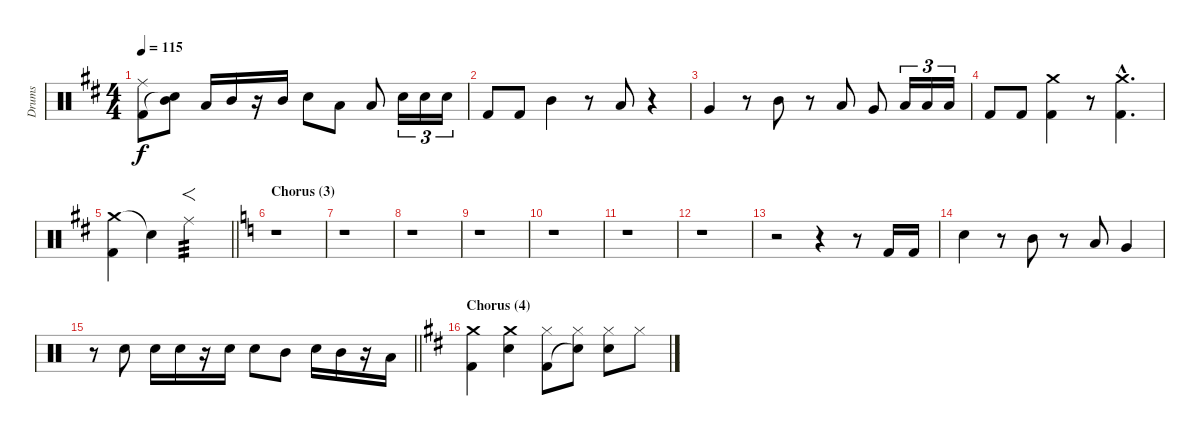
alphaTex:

\track ("Drums" "Drums") {instrument percussion}
\staff {score}
\articulation defaults
\ts (4 4)
\tempo 115
\clef neutral
\ks d
("Ride (middle)" "Kick (hit) 2").8{dy f} ("Mid Tom (hit)" "Snare (hit)"{t}).8 "Low Tom (hit)".16 "Mid Tom (hit)".16 r.16 "Mid Tom (hit)".16 "Electric Snare (hit)".8 "Low Tom (hit)".8 "Low Tom (hit)".8 "Electric Snare (hit)".16{tu (3 2)} "Electric Snare (hit)".16{tu (3 2)} "Electric Snare (hit)".16{tu (3 2)} |
"Kick (hit) 2".8 "Kick (hit) 2".8 "Mid Tom (hit)".4 r.8 "Low Tom (hit)".8 r.4 |
"Very Low Tom (hit)".4 r.8 "Mid Tom (hit)".8 r.8 "Low Tom (hit)".8 "Very Low Tom (hit)".8 "Low Floor Tom (hit)".16{tu (3 2)} "Low Floor Tom (hit)".16{tu (3 2)} "Low Floor Tom (hit)".16{tu (3 2)} |
"Kick (hit) 2".8 "Kick (hit) 2".8 ("Crash medium (hit)" "Kick (hit) 2").4 r.8 ("Crash medium (hit)"{hac} "Kick (hit) 2"{hac}).4{d} |
\barLineRight lightlight
("Crash medium (hit)" "Kick (hit) 2").4 "Snare (hit)"{t}.4 "Ride (middle)".2{f tp 3} |
\section ("" "Chorus (3)")
\ks c
r.1 |
r.1 |
r.1 |
r.1 |
r.1 |
r.1 |
r.1 |
r.2 r.4 r.8 "Kick (hit) 2".16 "Kick (hit) 2".16 |
"Electric Snare (hit)".4 r.8 "Mid Tom (hit)".8 r.8 "Low Tom (hit)".8 "Very Low Tom (hit)".4 |
\barLineRight lightlight
r.8 "Electric Snare (hit)".8 "Electric Snare (hit)".16 "Electric Snare (hit)".16 r.16 "Electric Snare (hit)".16 "Electric Snare (hit)".8 "Mid Tom (hit)".8 "Electric Snare (hit)".16 "Mid Tom (hit)".16 r.16 "Low Tom (hit)".16 |
\section ("" "Chorus (4)")
\ks d
("Crash medium (hit)" "Kick (hit) 2").4 ("Crash medium (hit)" "Electric Snare (hit)").4 ("Hi-Hat (closed)" "Kick (hit) 2").8 ("Hi-Hat (closed)" "Snare (hit)"{t}).8 ("Hi-Hat (closed)" "Electric Snare (hit)").8 "Hi-Hat (closed)".8
